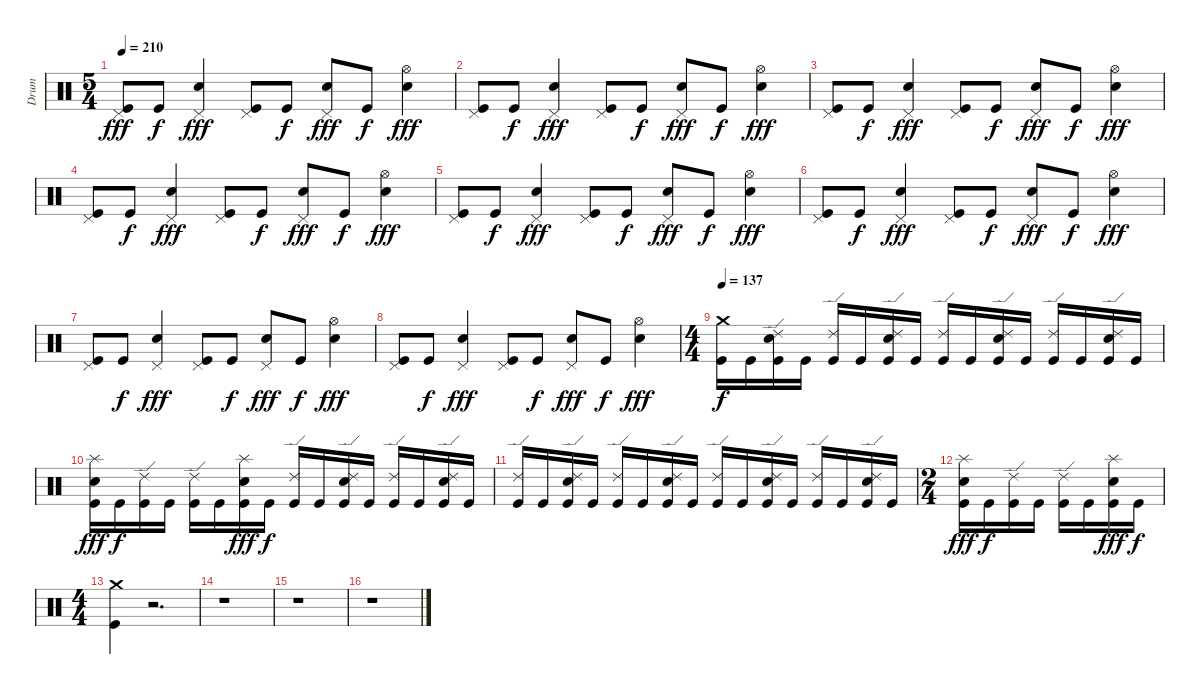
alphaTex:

\track ("Drum" "Drum") {instrument percussion}
\staff {score}
\articulation defaults
\ts (5 4)
\tempo 210
\clef neutral
\ks c
("Pedal Hi-Hat (hit)" "Kick (hit)").8{dy fff} "Kick (hit)".8{dy f} ("Pedal Hi-Hat (hit)" "Snare (hit) 2").4{dy fff} ("Pedal Hi-Hat (hit)" "Kick (hit)").8 "Kick (hit)".8{dy f} ("Pedal Hi-Hat (hit)" "Snare (hit) 2").8{dy fff} "Kick (hit)".8{dy f} ("Hi-Hat (open)" "Snare (hit) 2").4{dy fff} |
("Pedal Hi-Hat (hit)" "Kick (hit)").8 "Kick (hit)".8{dy f} ("Pedal Hi-Hat (hit)" "Snare (hit) 2").4{dy fff} ("Pedal Hi-Hat (hit)" "Kick (hit)").8 "Kick (hit)".8{dy f} ("Pedal Hi-Hat (hit)" "Snare (hit) 2").8{dy fff} "Kick (hit)".8{dy f} ("Hi-Hat (open)" "Snare (hit) 2").4{dy fff} |
("Pedal Hi-Hat (hit)" "Kick (hit)").8 "Kick (hit)".8{dy f} ("Pedal Hi-Hat (hit)" "Snare (hit) 2").4{dy fff} ("Pedal Hi-Hat (hit)" "Kick (hit)").8 "Kick (hit)".8{dy f} ("Pedal Hi-Hat (hit)" "Snare (hit) 2").8{dy fff} "Kick (hit)".8{dy f} ("Hi-Hat (open)" "Snare (hit) 2").4{dy fff} |
("Pedal Hi-Hat (hit)" "Kick (hit)").8 "Kick (hit)".8{dy f} ("Pedal Hi-Hat (hit)" "Snare (hit) 2").4{dy fff} ("Pedal Hi-Hat (hit)" "Kick (hit)").8 "Kick (hit)".8{dy f} ("Pedal Hi-Hat (hit)" "Snare (hit) 2").8{dy fff} "Kick (hit)".8{dy f} ("Hi-Hat (open)" "Snare (hit) 2").4{dy fff} |
("Pedal Hi-Hat (hit)" "Kick (hit)").8 "Kick (hit)".8{dy f} ("Pedal Hi-Hat (hit)" "Snare (hit) 2").4{dy fff} ("Pedal Hi-Hat (hit)" "Kick (hit)").8 "Kick (hit)".8{dy f} ("Pedal Hi-Hat (hit)" "Snare (hit) 2").8{dy fff} "Kick (hit)".8{dy f} ("Hi-Hat (open)" "Snare (hit) 2").4{dy fff} |
("Pedal Hi-Hat (hit)" "Kick (hit)").8 "Kick (hit)".8{dy f} ("Pedal Hi-Hat (hit)" "Snare (hit) 2").4{dy fff} ("Pedal Hi-Hat (hit)" "Kick (hit)").8 "Kick (hit)".8{dy f} ("Pedal Hi-Hat (hit)" "Snare (hit) 2").8{dy fff} "Kick (hit)".8{dy f} ("Hi-Hat (open)" "Snare (hit) 2").4{dy fff} |
("Pedal Hi-Hat (hit)" "Kick (hit)").8 "Kick (hit)".8{dy f} ("Pedal Hi-Hat (hit)" "Snare (hit) 2").4{dy fff} ("Pedal Hi-Hat (hit)" "Kick (hit)").8 "Kick (hit)".8{dy f} ("Pedal Hi-Hat (hit)" "Snare (hit) 2").8{dy fff} "Kick (hit)".8{dy f} ("Hi-Hat (open)" "Snare (hit) 2").4{dy fff} |
("Pedal Hi-Hat (hit)" "Kick (hit)").8 "Kick (hit)".8{dy f} ("Pedal Hi-Hat (hit)" "Snare (hit) 2").4{dy fff} ("Pedal Hi-Hat (hit)" "Kick (hit)").8 "Kick (hit)".8{dy f} ("Pedal Hi-Hat (hit)" "Snare (hit) 2").8{dy fff} "Kick (hit)".8{dy f} ("Hi-Hat (open)" "Snare (hit) 2").4{dy fff} |
\ts (4 4)
\tempo 137
("Crash medium (hit)" "Kick (hit)").16{dy f} "Kick (hit)".16 ("Ride (edge) 2" "Snare (hit) 2" "Kick (hit)").16 "Kick (hit)".16 ("Ride (edge) 2" "Kick (hit)").16 "Kick (hit)".16 ("Ride (edge) 2" "Snare (hit) 2" "Kick (hit)").16 "Kick (hit)".16 ("Ride (edge) 2" "Kick (hit)").16 "Kick (hit)".16 ("Ride (edge) 2" "Snare (hit) 2" "Kick (hit)").16 "Kick (hit)".16 ("Ride (edge) 2" "Kick (hit)").16 "Kick (hit)".16 ("Ride (edge) 2" "Snare (hit) 2" "Kick (hit)").16 "Kick (hit)".16 |
("Splash (hit)" "Snare (hit) 2" "Kick (hit)").16{dy fff} "Kick (hit)".16{dy f} ("Ride (edge) 2" "Kick (hit)").16 "Kick (hit)".16 ("Ride (edge) 2" "Kick (hit)").16 "Kick (hit)".16 ("Splash (hit)" "Snare (hit) 2" "Kick (hit)").16{dy fff} "Kick (hit)".16{dy f} ("Ride (edge) 2" "Kick (hit)").16 "Kick (hit)".16 ("Ride (edge) 2" "Snare (hit) 2" "Kick (hit)").16 "Kick (hit)".16 ("Ride (edge) 2" "Kick (hit)").16 "Kick (hit)".16 ("Ride (edge) 2" "Snare (hit) 2" "Kick (hit)").16 "Kick (hit)".16 |
("Ride (edge) 2" "Kick (hit)").16 "Kick (hit)".16 ("Ride (edge) 2" "Snare (hit) 2" "Kick (hit)").16 "Kick (hit)".16 ("Ride (edge) 2" "Kick (hit)").16 "Kick (hit)".16 ("Ride (edge) 2" "Snare (hit) 2" "Kick (hit)").16 "Kick (hit)".16 ("Ride (edge) 2" "Kick (hit)").16 "Kick (hit)".16 ("Ride (edge) 2" "Snare (hit) 2" "Kick (hit)").16 "Kick (hit)".16 ("Ride (edge) 2" "Kick (hit)").16 "Kick (hit)".16 ("Ride (edge) 2" "Snare (hit) 2" "Kick (hit)").16 "Kick (hit)".16 |
\ts (2 4)
("Splash (hit)" "Snare (hit) 2" "Kick (hit)").16{dy fff} "Kick (hit)".16{dy f} ("Ride (edge) 2" "Kick (hit)").16 "Kick (hit)".16 ("Ride (edge) 2" "Kick (hit)").16 "Kick (hit)".16 ("Splash (hit)" "Snare (hit) 2" "Kick (hit)").16{dy fff} "Kick (hit)".16{dy f} |
\ts (4 4)
("Crash medium (hit)" "Kick (hit)").4 r.2{d} |
r.1 |
r.1 |
r.1
